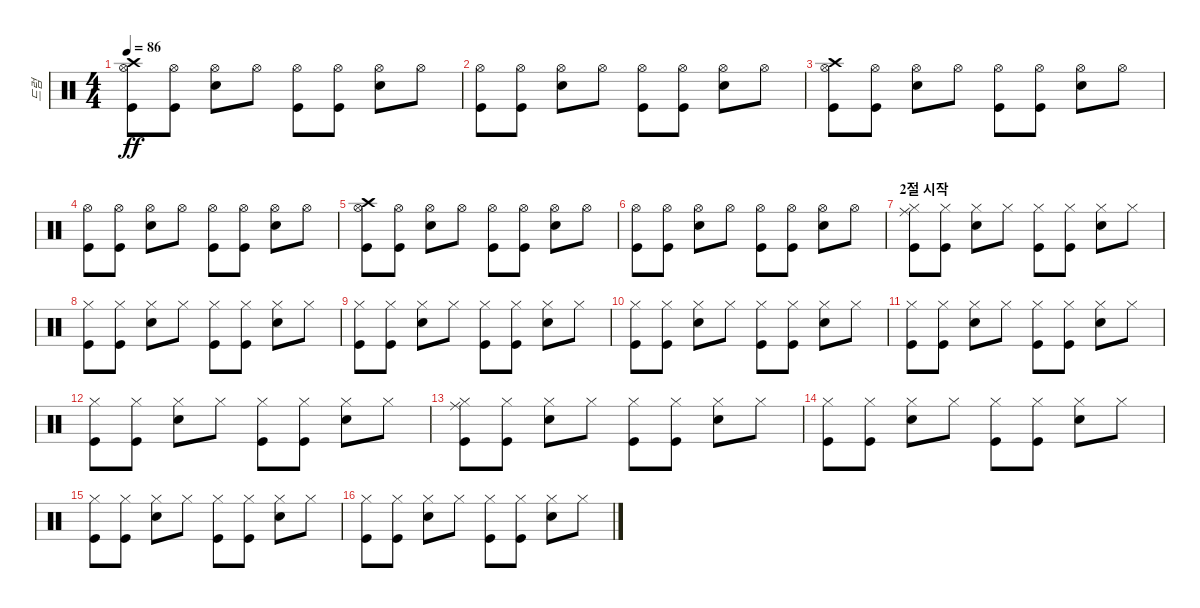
\track ("드럼" "드럼") {instrument percussion}
\staff {score}
\articulation defaults
\ts (4 4)
\tempo 86
\clef neutral
\ks c
("Kick (hit)" "Hi-Hat (open)" "Crash high (hit)").8{dy ff} ("Kick (hit)" "Hi-Hat (open)").8 ("Hi-Hat (open)" "Electric Snare (hit)").8 "Hi-Hat (open)".8 ("Hi-Hat (open)" "Kick (hit)").8 ("Hi-Hat (open)" "Kick (hit)").8 ("Hi-Hat (open)" "Electric Snare (hit)").8 "Hi-Hat (open)".8 |
("Hi-Hat (open)" "Kick (hit)").8 ("Hi-Hat (open)" "Kick (hit)").8 ("Hi-Hat (open)" "Electric Snare (hit)").8 "Hi-Hat (open)".8 ("Hi-Hat (open)" "Kick (hit)").8 ("Hi-Hat (open)" "Kick (hit)").8 ("Hi-Hat (open)" "Electric Snare (hit)").8 "Hi-Hat (open)".8 |
("Crash high (hit)" "Kick (hit)" "Hi-Hat (open)").8 ("Hi-Hat (open)" "Kick (hit)").8 ("Electric Snare (hit)" "Hi-Hat (open)").8 "Hi-Hat (open)".8 ("Hi-Hat (open)" "Kick (hit)").8 ("Hi-Hat (open)" "Kick (hit)").8 ("Hi-Hat (open)" "Electric Snare (hit)").8 "Hi-Hat (open)".8 |
("Kick (hit)" "Hi-Hat (open)").8 ("Kick (hit)" "Hi-Hat (open)").8 ("Hi-Hat (open)" "Electric Snare (hit)").8 "Hi-Hat (open)".8 ("Hi-Hat (open)" "Kick (hit)").8 ("Hi-Hat (open)" "Kick (hit)").8 ("Electric Snare (hit)" "Hi-Hat (open)").8 "Hi-Hat (open)".8 |
("Kick (hit)" "Hi-Hat (open)" "Crash high (hit)").8 ("Kick (hit)" "Hi-Hat (open)").8 ("Hi-Hat (open)" "Electric Snare (hit)").8 "Hi-Hat (open)".8 ("Hi-Hat (open)" "Kick (hit)").8 ("Hi-Hat (open)" "Kick (hit)").8 ("Hi-Hat (open)" "Electric Snare (hit)").8 "Hi-Hat (open)".8 |
("Hi-Hat (open)" "Kick (hit)").8 ("Hi-Hat (open)" "Kick (hit)").8 ("Hi-Hat (open)" "Electric Snare (hit)").8 "Hi-Hat (open)".8 ("Hi-Hat (open)" "Kick (hit)").8 ("Hi-Hat (open)" "Kick (hit)").8 ("Hi-Hat (open)" "Electric Snare (hit)").8 "Hi-Hat (open)".8 |
\section ("" "2절 시작")
("Hi-Hat (closed)" "Ride (middle)" "Kick (hit)").8 ("Hi-Hat (closed)" "Kick (hit)").8 ("Hi-Hat (closed)" "Electric Snare (hit)").8 "Hi-Hat (closed)".8 ("Hi-Hat (closed)" "Kick (hit)").8 ("Hi-Hat (closed)" "Kick (hit)").8 ("Hi-Hat (closed)" "Electric Snare (hit)").8 "Hi-Hat (closed)".8 |
("Hi-Hat (closed)" "Kick (hit)").8 ("Hi-Hat (closed)" "Kick (hit)").8 ("Hi-Hat (closed)" "Electric Snare (hit)").8 "Hi-Hat (closed)".8 ("Hi-Hat (closed)" "Kick (hit)").8 ("Hi-Hat (closed)" "Kick (hit)").8 ("Hi-Hat (closed)" "Electric Snare (hit)").8 "Hi-Hat (closed)".8 |
("Hi-Hat (closed)" "Kick (hit)").8 ("Hi-Hat (closed)" "Kick (hit)").8 ("Hi-Hat (closed)" "Electric Snare (hit)").8 "Hi-Hat (closed)".8 ("Hi-Hat (closed)" "Kick (hit)").8 ("Hi-Hat (closed)" "Kick (hit)").8 ("Hi-Hat (closed)" "Electric Snare (hit)").8 "Hi-Hat (closed)".8 |
("Hi-Hat (closed)" "Kick (hit)").8 ("Hi-Hat (closed)" "Kick (hit)").8 ("Hi-Hat (closed)" "Electric Snare (hit)").8 "Hi-Hat (closed)".8 ("Hi-Hat (closed)" "Kick (hit)").8 ("Hi-Hat (closed)" "Kick (hit)").8 ("Hi-Hat (closed)" "Electric Snare (hit)").8 "Hi-Hat (closed)".8 |
("Hi-Hat (closed)" "Kick (hit)").8 ("Hi-Hat (closed)" "Kick (hit)").8 ("Hi-Hat (closed)" "Electric Snare (hit)").8 "Hi-Hat (closed)".8 ("Hi-Hat (closed)" "Kick (hit)").8 ("Hi-Hat (closed)" "Kick (hit)").8 ("Hi-Hat (closed)" "Electric Snare (hit)").8 "Hi-Hat (closed)".8 |
("Hi-Hat (closed)" "Kick (hit)").8 ("Hi-Hat (closed)" "Kick (hit)").8 ("Hi-Hat (closed)" "Electric Snare (hit)").8 "Hi-Hat (closed)".8 ("Hi-Hat (closed)" "Kick (hit)").8 ("Hi-Hat (closed)" "Kick (hit)").8 ("Hi-Hat (closed)" "Electric Snare (hit)").8 "Hi-Hat (closed)".8 |
("Hi-Hat (closed)" "Ride (middle)" "Kick (hit)").8 ("Hi-Hat (closed)" "Kick (hit)").8 ("Hi-Hat (closed)" "Electric Snare (hit)").8 "Hi-Hat (closed)".8 ("Hi-Hat (closed)" "Kick (hit)").8 ("Hi-Hat (closed)" "Kick (hit)").8 ("Hi-Hat (closed)" "Electric Snare (hit)").8 "Hi-Hat (closed)".8 |
("Hi-Hat (closed)" "Kick (hit)").8 ("Hi-Hat (closed)" "Kick (hit)").8 ("Hi-Hat (closed)" "Electric Snare (hit)").8 "Hi-Hat (closed)".8 ("Hi-Hat (closed)" "Kick (hit)").8 ("Hi-Hat (closed)" "Kick (hit)").8 ("Hi-Hat (closed)" "Electric Snare (hit)").8 "Hi-Hat (closed)".8 |
("Hi-Hat (closed)" "Kick (hit)").8 ("Hi-Hat (closed)" "Kick (hit)").8 ("Hi-Hat (closed)" "Electric Snare (hit)").8 "Hi-Hat (closed)".8 ("Hi-Hat (closed)" "Kick (hit)").8 ("Hi-Hat (closed)" "Kick (hit)").8 ("Hi-Hat (closed)" "Electric Snare (hit)").8 "Hi-Hat (closed)".8 |
("Hi-Hat (closed)" "Kick (hit)").8 ("Hi-Hat (closed)" "Kick (hit)").8 ("Hi-Hat (closed)" "Electric Snare (hit)").8 "Hi-Hat (closed)".8 ("Hi-Hat (closed)" "Kick (hit)").8 ("Hi-Hat (closed)" "Kick (hit)").8 ("Hi-Hat (closed)" "Electric Snare (hit)").8 "Hi-Hat (closed)".8
